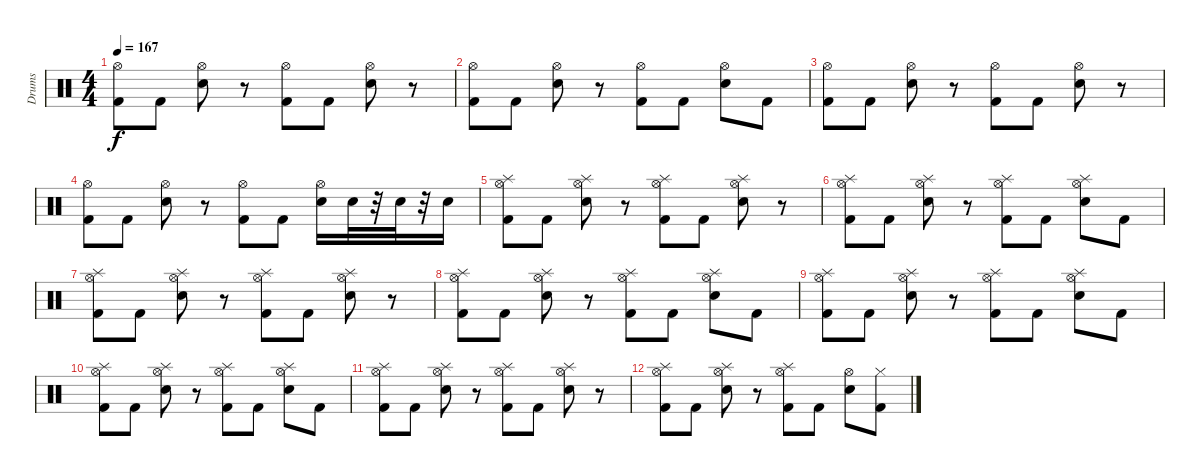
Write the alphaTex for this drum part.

\track ("Drums" "Drums") {instrument percussion}
\staff {score}
\articulation defaults
\ts (4 4)
\tempo 167
\clef neutral
\ks c
("Hi-Hat (open)" "Kick (hit) 2").8{dy f} "Kick (hit) 2".8 ("Hi-Hat (open)" "Electric Snare (hit)").8 r.8 ("Hi-Hat (open)" "Kick (hit) 2").8 "Kick (hit) 2".8 ("Hi-Hat (open)" "Electric Snare (hit)").8 r.8 |
("Hi-Hat (open)" "Kick (hit) 2").8 "Kick (hit) 2".8 ("Hi-Hat (open)" "Electric Snare (hit)").8 r.8 ("Hi-Hat (open)" "Kick (hit) 2").8 "Kick (hit) 2".8 ("Hi-Hat (open)" "Electric Snare (hit)").8 "Kick (hit) 2".8 |
("Hi-Hat (open)" "Kick (hit) 2").8 "Kick (hit) 2".8 ("Hi-Hat (open)" "Electric Snare (hit)").8 r.8 ("Hi-Hat (open)" "Kick (hit) 2").8 "Kick (hit) 2".8 ("Hi-Hat (open)" "Electric Snare (hit)").8 r.8 |
("Hi-Hat (open)" "Kick (hit) 2").8 "Kick (hit) 2".8 ("Hi-Hat (open)" "Electric Snare (hit)").8 r.8 ("Hi-Hat (open)" "Kick (hit) 2").8 "Kick (hit) 2".8 ("Hi-Hat (open)" "Electric Snare (hit)").16 "Electric Snare (hit)".32 r.32 "Electric Snare (hit)".32 r.32 "Electric Snare (hit)".16 |
("Kick (hit) 2" "Splash (hit)" "Hi-Hat (open)").8 "Kick (hit) 2".8 ("Electric Snare (hit)" "Splash (hit)" "Hi-Hat (open)").8 r.8 ("Kick (hit) 2" "Splash (hit)" "Hi-Hat (open)").8 "Kick (hit) 2".8 ("Electric Snare (hit)" "Splash (hit)" "Hi-Hat (open)").8 r.8 |
("Hi-Hat (open)" "Kick (hit) 2" "Splash (hit)").8 "Kick (hit) 2".8 ("Hi-Hat (open)" "Electric Snare (hit)" "Splash (hit)").8 r.8 ("Hi-Hat (open)" "Kick (hit) 2" "Splash (hit)").8 "Kick (hit) 2".8 ("Hi-Hat (open)" "Electric Snare (hit)" "Splash (hit)").8 "Kick (hit) 2".8 |
("Kick (hit) 2" "Splash (hit)" "Hi-Hat (open)").8 "Kick (hit) 2".8 ("Electric Snare (hit)" "Splash (hit)" "Hi-Hat (open)").8 r.8 ("Kick (hit) 2" "Splash (hit)" "Hi-Hat (open)").8 "Kick (hit) 2".8 ("Electric Snare (hit)" "Splash (hit)" "Hi-Hat (open)").8 r.8 |
("Hi-Hat (open)" "Kick (hit) 2" "Splash (hit)").8 "Kick (hit) 2".8 ("Hi-Hat (open)" "Electric Snare (hit)" "Splash (hit)").8 r.8 ("Hi-Hat (open)" "Kick (hit) 2" "Splash (hit)").8 "Kick (hit) 2".8 ("Hi-Hat (open)" "Electric Snare (hit)" "Splash (hit)").8 "Kick (hit) 2".8 |
("Hi-Hat (open)" "Kick (hit) 2" "Splash (hit)").8 "Kick (hit) 2".8 ("Hi-Hat (open)" "Electric Snare (hit)" "Splash (hit)").8 r.8 ("Hi-Hat (open)" "Kick (hit) 2" "Splash (hit)").8 "Kick (hit) 2".8 ("Hi-Hat (open)" "Electric Snare (hit)" "Splash (hit)").8 "Kick (hit) 2".8 |
("Hi-Hat (open)" "Kick (hit) 2" "Splash (hit)").8 "Kick (hit) 2".8 ("Hi-Hat (open)" "Electric Snare (hit)" "Splash (hit)").8 r.8 ("Hi-Hat (open)" "Kick (hit) 2" "Splash (hit)").8 "Kick (hit) 2".8 ("Hi-Hat (open)" "Electric Snare (hit)" "Splash (hit)").8 "Kick (hit) 2".8 |
("Kick (hit) 2" "Splash (hit)" "Hi-Hat (open)").8 "Kick (hit) 2".8 ("Electric Snare (hit)" "Splash (hit)" "Hi-Hat (open)").8 r.8 ("Kick (hit) 2" "Splash (hit)" "Hi-Hat (open)").8 "Kick (hit) 2".8 ("Electric Snare (hit)" "Splash (hit)" "Hi-Hat (open)").8 r.8 |
("Hi-Hat (open)" "Kick (hit) 2" "Splash (hit)").8 "Kick (hit) 2".8 ("Hi-Hat (open)" "Electric Snare (hit)" "Splash (hit)").8 r.8 ("Hi-Hat (open)" "Kick (hit) 2" "Splash (hit)").8 "Kick (hit) 2".8 ("Hi-Hat (open)" "Electric Snare (hit)").8 ("Kick (hit) 2" "Hi-Hat (closed)").8
